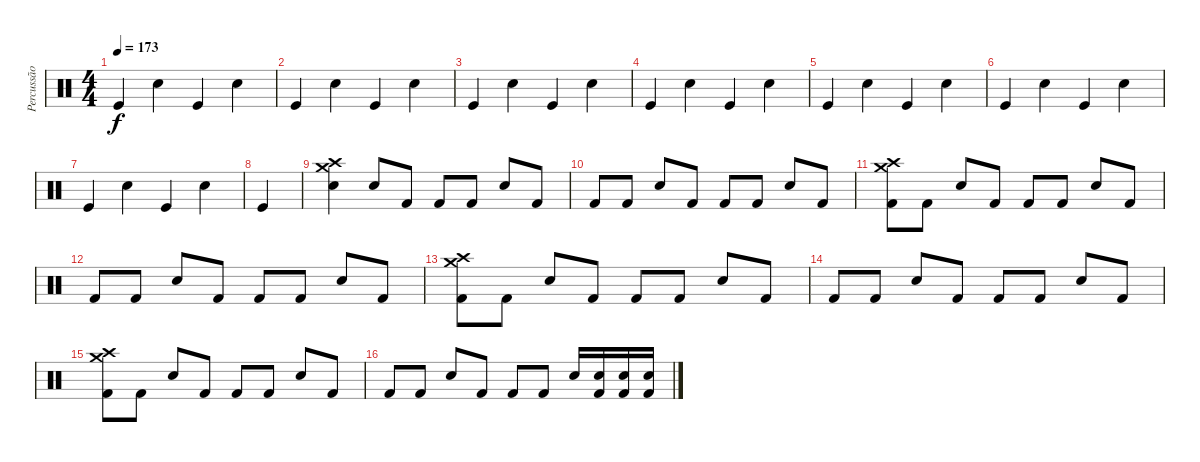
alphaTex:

\track ("Percussão" "Percussão") {instrument percussion}
\staff {score}
\articulation defaults
\ts (4 4)
\tempo 173
\clef neutral
\ks c "Kick (hit)".4{dy f} "Snare (hit) 2".4 "Kick (hit)".4 "Snare (hit) 2".4
|
"Kick (hit)".4 "Snare (hit) 2".4 "Kick (hit)".4 "Snare (hit) 2".4 |
"Kick (hit)".4 "Snare (hit) 2".4 "Kick (hit)".4 "Snare (hit) 2".4 |
"Kick (hit)".4 "Snare (hit) 2".4 "Kick (hit)".4 "Snare (hit) 2".4 |
"Kick (hit)".4 "Snare (hit) 2".4 "Kick (hit)".4 "Snare (hit) 2".4 |
"Kick (hit)".4 "Snare (hit) 2".4 "Kick (hit)".4 "Snare (hit) 2".4 |
"Kick (hit)".4 "Snare (hit) 2".4 "Kick (hit)".4 "Snare (hit) 2".4 |
"Kick (hit)".4 |
("Crash high (hit)" "Crash medium (hit)" "Snare (hit) 2").4 "Snare (hit) 2".8 "Kick (hit) 2".8 "Kick (hit) 2".8 "Kick (hit) 2".8 "Snare (hit) 2".8 "Kick (hit) 2".8 |
"Kick (hit) 2".8 "Kick (hit) 2".8 "Snare (hit) 2".8 "Kick (hit) 2".8 "Kick (hit) 2".8 "Kick (hit) 2".8 "Snare (hit) 2".8 "Kick (hit) 2".8 |
("Crash high (hit)" "Kick (hit) 2" "Crash medium (hit)").8 "Kick (hit) 2".8 "Snare (hit) 2".8 "Kick (hit) 2".8 "Kick (hit) 2".8 "Kick (hit) 2".8 "Snare (hit) 2".8 "Kick (hit) 2".8 |
"Kick (hit) 2".8 "Kick (hit) 2".8 "Snare (hit) 2".8 "Kick (hit) 2".8 "Kick (hit) 2".8 "Kick (hit) 2".8 "Snare (hit) 2".8 "Kick (hit) 2".8 |
("Crash high (hit)" "Kick (hit) 2" "Crash medium (hit)").8 "Kick (hit) 2".8 "Snare (hit) 2".8 "Kick (hit) 2".8 "Kick (hit) 2".8 "Kick (hit) 2".8 "Snare (hit) 2".8 "Kick (hit) 2".8 |
"Kick (hit) 2".8 "Kick (hit) 2".8 "Snare (hit) 2".8 "Kick (hit) 2".8 "Kick (hit) 2".8 "Kick (hit) 2".8 "Snare (hit) 2".8 "Kick (hit) 2".8 |
("Crash high (hit)" "Kick (hit) 2" "Crash medium (hit)").8 "Kick (hit) 2".8 "Snare (hit) 2".8 "Kick (hit) 2".8 "Kick (hit) 2".8 "Kick (hit) 2".8 "Snare (hit) 2".8 "Kick (hit) 2".8 |
"Kick (hit) 2".8 "Kick (hit) 2".8 "Snare (hit) 2".8 "Kick (hit) 2".8 "Kick (hit) 2".8 "Kick (hit) 2".8 "Snare (hit) 2".16 ("Kick (hit) 2" "Electric Snare (hit)").16 ("Kick (hit) 2" "Electric Snare (hit)").16 ("Kick (hit) 2" "Electric Snare (hit)").16
